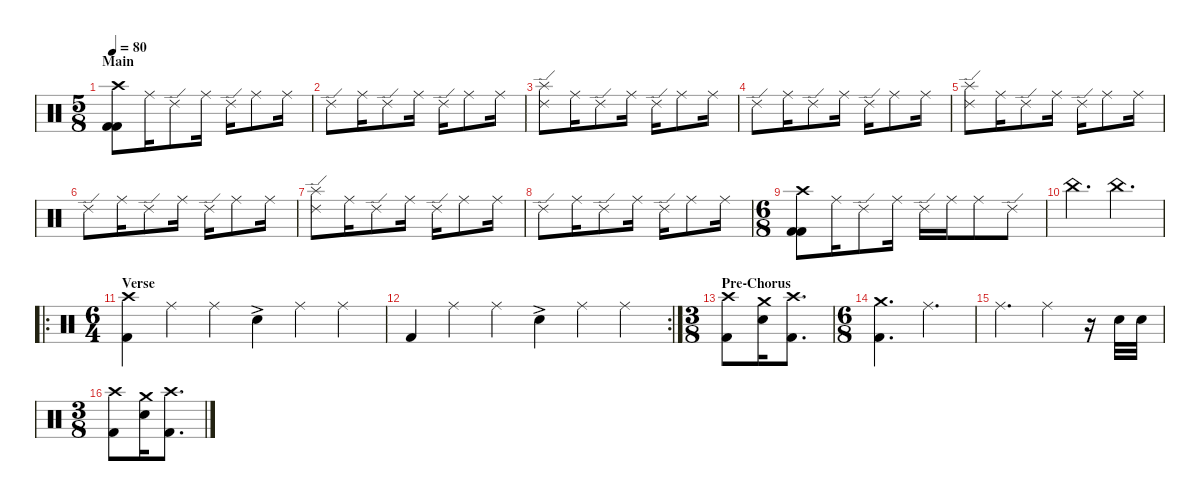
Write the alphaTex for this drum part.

\defaultSystemsLayout 4
\hideDynamics
\bracketExtendMode nobrackets
\singleTrackTrackNamePolicy hidden
\multiTrackTrackNamePolicy hidden
\firstSystemTrackNameMode fullname
\firstSystemTrackNameOrientation horizontal
\otherSystemsTrackNameOrientation horizontal
\track ("Martin Lopez" "drm.") {instrument percussion}
\staff {score}
\articulation defaults
\ts (5 8)
\section ("" "Main")
\tempo 80
\clef neutral
\ks c
("Crash high (hit)" "Kick (hit) 2" "Kick (hit) 2").8{dy f beam Down} "Ride (middle)".16{beam Down} "Ride (edge) 2".8{beam Down} "Ride (middle)".16{beam Down} "Ride (edge) 2".16{beam Down} "Ride (middle)".8{beam Down} "Ride (middle)".16{beam Down} |
"Ride (edge) 2".8{beam Down} "Ride (middle)".16{beam Down} "Ride (edge) 2".8{beam Down} "Ride (middle)".16{beam Down} "Ride (edge) 2".16{beam Down} "Ride (middle)".8{beam Down} "Ride (middle)".16{beam Down} |
("Ride (edge) 2" "Splash (hit)").8{beam Down} "Ride (middle)".16{beam Down} "Ride (edge) 2".8{beam Down} "Ride (middle)".16{beam Down} "Ride (edge) 2".16{beam Down} "Ride (middle)".8{beam Down} "Ride (middle)".16{beam Down} |
"Ride (edge) 2".8{beam Down} "Ride (middle)".16{beam Down} "Ride (edge) 2".8{beam Down} "Ride (middle)".16{beam Down} "Ride (edge) 2".16{beam Down} "Ride (middle)".8{beam Down} "Ride (middle)".16{beam Down} |
("Ride (edge) 2" "Splash (hit)").8{beam Down} "Ride (middle)".16{beam Down} "Ride (edge) 2".8{beam Down} "Ride (middle)".16{beam Down} "Ride (edge) 2".16{beam Down} "Ride (middle)".8{beam Down} "Ride (middle)".16{beam Down} |
"Ride (edge) 2".8{beam Down} "Ride (middle)".16{beam Down} "Ride (edge) 2".8{beam Down} "Ride (middle)".16{beam Down} "Ride (edge) 2".16{beam Down} "Ride (middle)".8{beam Down} "Ride (middle)".16{beam Down} |
("Ride (edge) 2" "Splash (hit)").8{beam Down} "Ride (middle)".16{beam Down} "Ride (edge) 2".8{beam Down} "Ride (middle)".16{beam Down} "Ride (edge) 2".16{beam Down} "Ride (middle)".8{beam Down} "Ride (middle)".16{beam Down} |
"Ride (edge) 2".8{beam Down} "Ride (middle)".16{beam Down} "Ride (edge) 2".8{beam Down} "Ride (middle)".16{beam Down} "Ride (edge) 2".16{beam Down} "Ride (middle)".8{beam Down} "Ride (middle)".16{beam Down} |
\ts (6 8)
("Crash high (hit)" "Kick (hit) 2" "Kick (hit) 2").8{beam Down} "Ride (middle)".16{beam Down} "Ride (edge) 2".8{beam Down} "Ride (middle)".16{beam Down} "Ride (edge) 2".16{beam Down} "Ride (middle)".16{beam Down} "Ride (middle)".8{beam Down} "Ride (edge) 2".8{beam Down} |
"China (hit)".4{d beam Down} "China (hit)".4{d dy pp beam Down} |
\ro
\ts (6 4)
\section ("" "Verse")
("Crash high (hit)" "Kick (hit) 2").4{dy f beam Down} "Ride (middle)".4{beam Down} "Ride (middle)".4{beam Down} "Snare (hit) 2"{ac}.4{beam Down} "Ride (middle)".4{beam Down} "Ride (middle)".4{beam Down} |
\rc 2 "Kick (hit) 2".4{dy fff beam Up} "Ride (middle)".4{dy f beam Down} "Ride (middle)".4{beam Down} "Snare (hit) 2"{ac}.4{beam Down} "Ride (middle)".4{beam Down} "Ride (middle)".4{beam Down}
|
\ts (3 8)
\section ("" "Pre-Chorus")
("Crash high (hit)" "Kick (hit) 2").8{dy ff beam Down} ("Crash medium (hit)" "Snare (hit) 2").16{beam Down} ("Crash high (hit)" "Kick (hit) 2").8{d beam Down} |
\ts (6 8)
("Crash medium (hit)" "Kick (hit) 2").4{d dy f beam Down} "Ride (middle)".4{d beam Down} |
"Ride (middle)".4{d beam Down} "Ride (middle)".4{beam Down} r.16{beam Down} "Snare (hit) 2".32{dy mf beam Down} "Snare (hit) 2".32{beam Down} |
\ts (3 8)
("Crash high (hit)" "Kick (hit) 2").8{dy ff beam Down} ("Crash medium (hit)" "Snare (hit) 2").16{beam Down} ("Crash high (hit)" "Kick (hit) 2").8{d beam Down}
